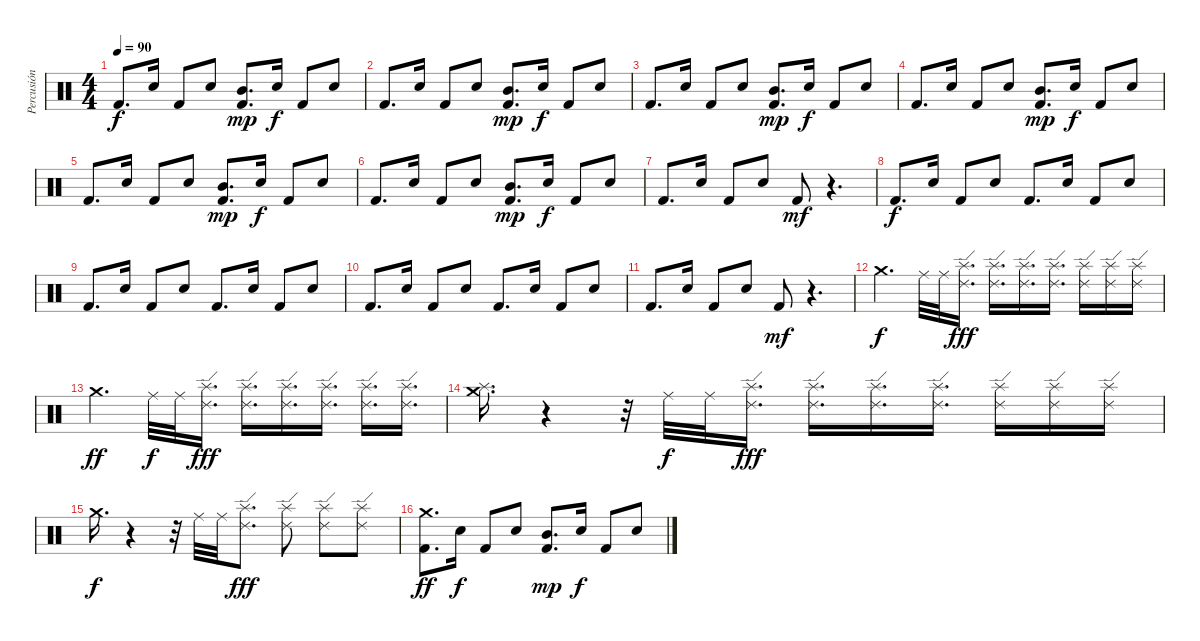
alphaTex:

\track ("Percusión" "Percusión") {instrument percussion}
\staff {score}
\articulation defaults
\ts (4 4)
\tempo 90
\clef neutral
\ks c "Kick (hit) 2".8{d dy f} "Electric Snare (hit)".16 "Kick (hit) 2".8 "Electric Snare (hit)".8
("Kick (hit) 2" "Mid Tom (hit)").8{d dy mp} "Electric Snare (hit)".16{dy f} "Kick (hit) 2".8 "Electric Snare (hit)".8 |
"Kick (hit) 2".8{d} "Electric Snare (hit)".16 "Kick (hit) 2".8 "Electric Snare (hit)".8 ("Kick (hit) 2" "Mid Tom (hit)").8{d dy mp} "Electric Snare (hit)".16{dy f} "Kick (hit) 2".8 "Electric Snare (hit)".8 |
"Kick (hit) 2".8{d} "Electric Snare (hit)".16 "Kick (hit) 2".8 "Electric Snare (hit)".8 ("Kick (hit) 2" "Mid Tom (hit)").8{d dy mp} "Electric Snare (hit)".16{dy f} "Kick (hit) 2".8 "Electric Snare (hit)".8 |
"Kick (hit) 2".8{d} "Electric Snare (hit)".16 "Kick (hit) 2".8 "Electric Snare (hit)".8 ("Kick (hit) 2" "Mid Tom (hit)").8{d dy mp} "Electric Snare (hit)".16{dy f} "Kick (hit) 2".8 "Electric Snare (hit)".8 |
"Kick (hit) 2".8{d} "Electric Snare (hit)".16 "Kick (hit) 2".8 "Electric Snare (hit)".8 ("Kick (hit) 2" "Mid Tom (hit)").8{d dy mp} "Electric Snare (hit)".16{dy f} "Kick (hit) 2".8 "Electric Snare (hit)".8 |
"Kick (hit) 2".8{d} "Electric Snare (hit)".16 "Kick (hit) 2".8 "Electric Snare (hit)".8 ("Kick (hit) 2" "Mid Tom (hit)").8{d dy mp} "Electric Snare (hit)".16{dy f} "Kick (hit) 2".8 "Electric Snare (hit)".8 |
"Kick (hit) 2".8{d} "Electric Snare (hit)".16 "Kick (hit) 2".8 "Electric Snare (hit)".8 "Kick (hit) 2".8{dy mf} r.4{d} |
"Kick (hit) 2".8{d dy f} "Electric Snare (hit)".16 "Kick (hit) 2".8 "Electric Snare (hit)".8 "Kick (hit) 2".8{d} "Electric Snare (hit)".16 "Kick (hit) 2".8 "Electric Snare (hit)".8 |
"Kick (hit) 2".8{d} "Electric Snare (hit)".16 "Kick (hit) 2".8 "Electric Snare (hit)".8 "Kick (hit) 2".8{d} "Electric Snare (hit)".16 "Kick (hit) 2".8 "Electric Snare (hit)".8 |
"Kick (hit) 2".8{d} "Electric Snare (hit)".16 "Kick (hit) 2".8 "Electric Snare (hit)".8 "Kick (hit) 2".8{d} "Electric Snare (hit)".16 "Kick (hit) 2".8 "Electric Snare (hit)".8 |
"Kick (hit) 2".8{d} "Electric Snare (hit)".16 "Kick (hit) 2".8 "Electric Snare (hit)".8 "Kick (hit) 2".8{dy mf} r.4{d} |
"Crash medium (hit)".4{d dy f} "Ride (middle)".32 "Ride (middle)".32 ("Splash (hit)" "Ride (edge) 2").16{d dy fff} ("Splash (hit)" "Ride (edge) 2").16{d} ("Splash (hit)" "Ride (edge) 2").16{d} ("Splash (hit)" "Ride (edge) 2").16{d} ("Splash (hit)" "Ride (edge) 2").16 ("Splash (hit)" "Ride (edge) 2").16 ("Splash (hit)" "Ride (edge) 2").16 |
"Crash medium (hit)".4{d dy ff} "Ride (middle)".32{dy f} "Ride (middle)".32 ("Splash (hit)" "Ride (edge) 2").16{d dy fff} ("Splash (hit)" "Ride (edge) 2").16{d} ("Splash (hit)" "Ride (edge) 2").16{d} ("Splash (hit)" "Ride (edge) 2").16{d} ("Splash (hit)" "Ride (edge) 2").16{d} ("Splash (hit)" "Ride (edge) 2").16{d} |
("Splash (hit)" "Crash medium (hit)").16{d} r.4 r.32 "Ride (middle)".32{dy f} "Ride (middle)".32 ("Splash (hit)" "Ride (edge) 2").16{d dy fff} ("Splash (hit)" "Ride (edge) 2").16{d} ("Splash (hit)" "Ride (edge) 2").16{d} ("Splash (hit)" "Ride (edge) 2").16{d} ("Splash (hit)" "Ride (edge) 2").16 ("Splash (hit)" "Ride (edge) 2").16 ("Splash (hit)" "Ride (edge) 2").16 |
"Crash medium (hit)".16{d dy f} r.4 r.32 "Ride (middle)".32 "Ride (middle)".32 ("Splash (hit)" "Ride (edge) 2").8{d dy fff} ("Splash (hit)" "Ride (edge) 2").8 ("Splash (hit)" "Ride (edge) 2").8 ("Splash (hit)" "Ride (edge) 2").8 |
("Kick (hit) 2" "Crash medium (hit)").8{d dy ff} "Electric Snare (hit)".16{dy f} "Kick (hit) 2".8 "Electric Snare (hit)".8 ("Kick (hit) 2" "Mid Tom (hit)").8{d dy mp} "Electric Snare (hit)".16{dy f} "Kick (hit) 2".8 "Electric Snare (hit)".8
